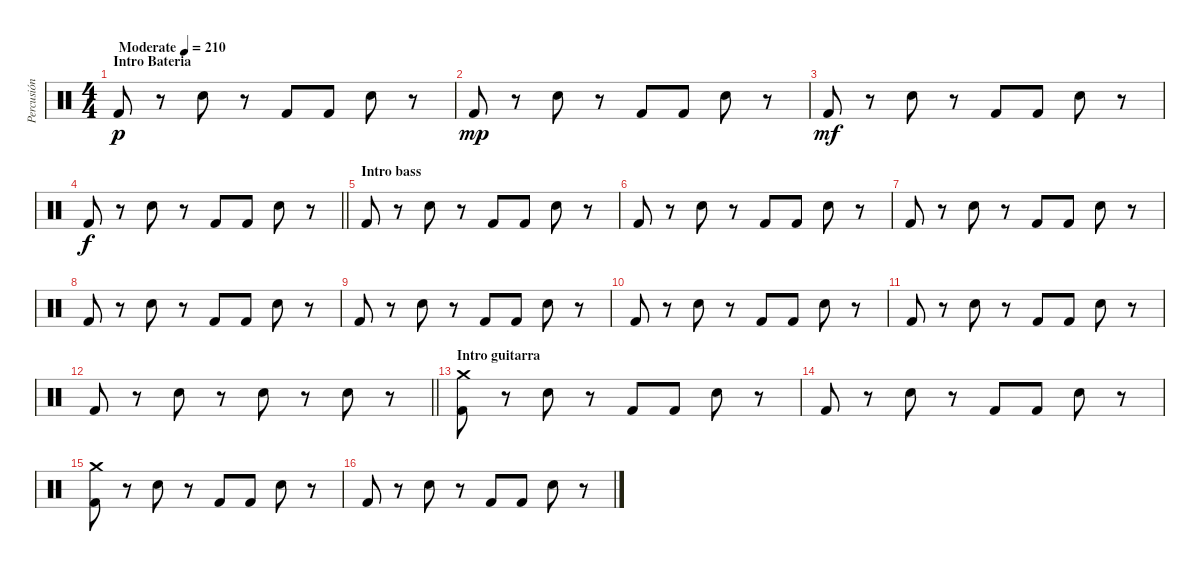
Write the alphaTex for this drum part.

\track ("Percusión" "Percusión") {instrument percussion}
\staff {score}
\articulation defaults
\ts (4 4)
\section ("" "Intro Bateria")
\tempo (210 "Moderate")
\tempo 190
\tempo (210 "Moderate")
\clef neutral
\ks c "Kick (hit) 2".8{dy p}
r.8 "Electric Snare (hit)".8 r.8 "Kick (hit) 2".8 "Kick (hit) 2".8 "Electric Snare (hit)".8 r.8 |
"Kick (hit) 2".8{dy mp} r.8 "Electric Snare (hit)".8 r.8 "Kick (hit) 2".8 "Kick (hit) 2".8 "Electric Snare (hit)".8 r.8 |
"Kick (hit) 2".8{dy mf} r.8 "Electric Snare (hit)".8 r.8 "Kick (hit) 2".8 "Kick (hit) 2".8 "Electric Snare (hit)".8 r.8 |
\barLineRight lightlight "Kick (hit) 2".8{dy f}
r.8 "Electric Snare (hit)".8 r.8 "Kick (hit) 2".8 "Kick (hit) 2".8 "Electric Snare (hit)".8 r.8 |
\section ("" "Intro bass")
"Kick (hit) 2".8 r.8 "Electric Snare (hit)".8 r.8 "Kick (hit) 2".8 "Kick (hit) 2".8 "Electric Snare (hit)".8 r.8 |
"Kick (hit) 2".8 r.8 "Electric Snare (hit)".8 r.8 "Kick (hit) 2".8 "Kick (hit) 2".8 "Electric Snare (hit)".8 r.8 |
"Kick (hit) 2".8 r.8 "Electric Snare (hit)".8 r.8 "Kick (hit) 2".8 "Kick (hit) 2".8 "Electric Snare (hit)".8 r.8 |
"Kick (hit) 2".8 r.8 "Electric Snare (hit)".8 r.8 "Kick (hit) 2".8 "Kick (hit) 2".8 "Electric Snare (hit)".8 r.8 |
"Kick (hit) 2".8 r.8 "Electric Snare (hit)".8 r.8 "Kick (hit) 2".8 "Kick (hit) 2".8 "Electric Snare (hit)".8 r.8 |
"Kick (hit) 2".8 r.8 "Electric Snare (hit)".8 r.8 "Kick (hit) 2".8 "Kick (hit) 2".8 "Electric Snare (hit)".8 r.8 |
"Kick (hit) 2".8 r.8 "Electric Snare (hit)".8 r.8 "Kick (hit) 2".8 "Kick (hit) 2".8 "Electric Snare (hit)".8 r.8 |
\barLineRight lightlight "Kick (hit) 2".8
r.8 "Electric Snare (hit)".8 r.8 "Electric Snare (hit)".8 r.8 "Electric Snare (hit)".8 r.8 |
\section ("" "Intro guitarra")
("Crash medium (hit)" "Kick (hit) 2").8 r.8 "Electric Snare (hit)".8 r.8 "Kick (hit) 2".8 "Kick (hit) 2".8 "Electric Snare (hit)".8 r.8 |
"Kick (hit) 2".8 r.8 "Electric Snare (hit)".8 r.8 "Kick (hit) 2".8 "Kick (hit) 2".8 "Electric Snare (hit)".8 r.8 |
("Crash medium (hit)" "Kick (hit) 2").8 r.8 "Electric Snare (hit)".8 r.8 "Kick (hit) 2".8 "Kick (hit) 2".8 "Electric Snare (hit)".8 r.8 |
"Kick (hit) 2".8 r.8 "Electric Snare (hit)".8 r.8 "Kick (hit) 2".8 "Kick (hit) 2".8 "Electric Snare (hit)".8 r.8
